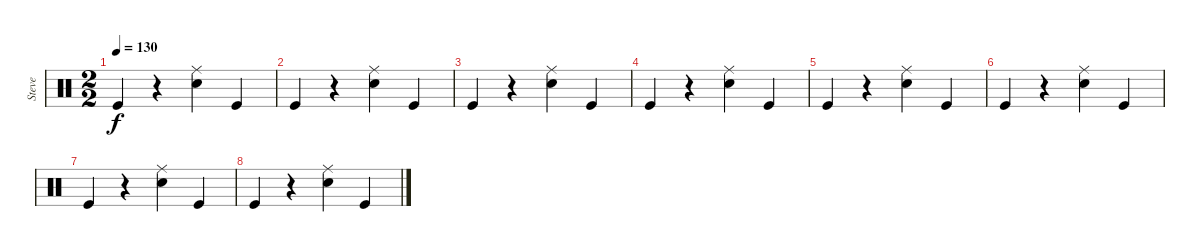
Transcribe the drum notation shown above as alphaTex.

\track ("Steve" "Steve") {instrument percussion}
\staff {score}
\articulation defaults
\ts (2 2)
\tempo 130
\clef neutral
\ks c "Kick (hit)".4{dy f}
r.4 ("Snare (hit) 2" "Ride (middle)").4 "Kick (hit)".4 |
"Kick (hit)".4 r.4 ("Snare (hit) 2" "Ride (middle)").4 "Kick (hit)".4 |
"Kick (hit)".4 r.4 ("Snare (hit) 2" "Ride (middle)").4 "Kick (hit)".4 |
"Kick (hit)".4 r.4 ("Snare (hit) 2" "Ride (middle)").4 "Kick (hit)".4 |
"Kick (hit)".4 r.4 ("Snare (hit) 2" "Ride (middle)").4 "Kick (hit)".4 |
"Kick (hit)".4 r.4 ("Snare (hit) 2" "Ride (middle)").4 "Kick (hit)".4 |
"Kick (hit)".4 r.4 ("Snare (hit) 2" "Ride (middle)").4 "Kick (hit)".4 |
"Kick (hit)".4 r.4 ("Snare (hit) 2" "Ride (middle)").4 "Kick (hit)".4
